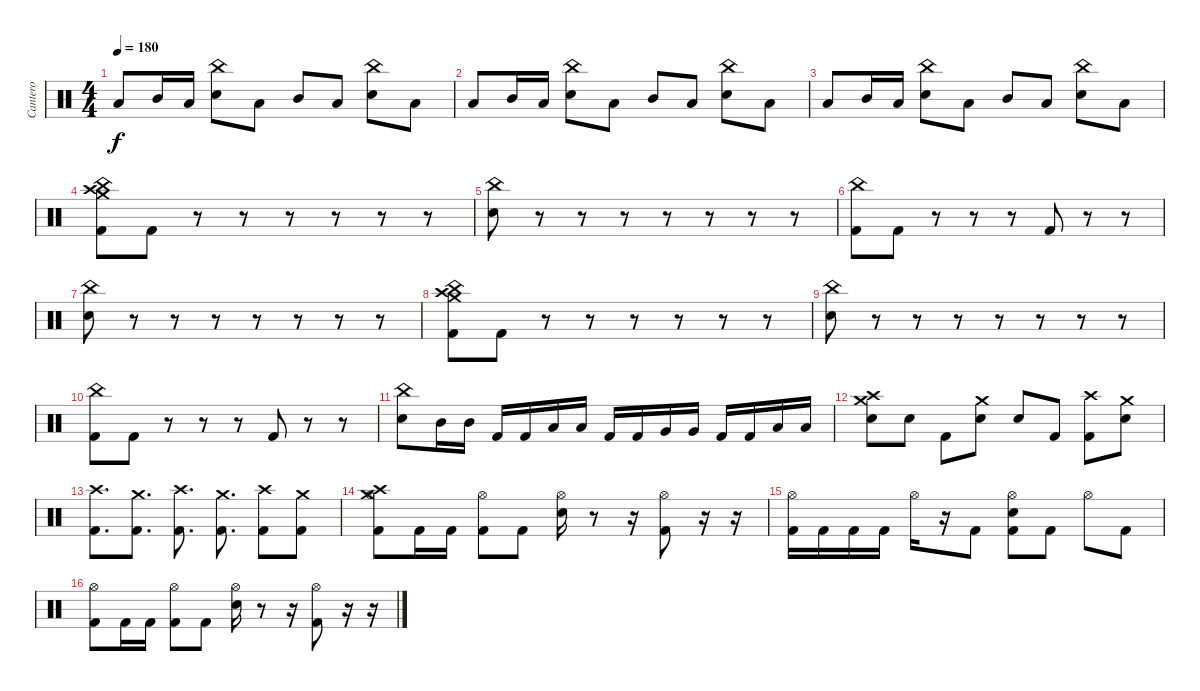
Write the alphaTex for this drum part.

\track ("Cantero" "Cantero") {instrument percussion}
\staff {score}
\articulation defaults
\ts (4 4)
\tempo 180
\clef neutral
\ks c "Low Tom (hit)".8{dy f} "Mid Tom (hit)".16 "Low Tom (hit)".16
("China (hit)" "Electric Snare (hit)").8 "Low Tom (hit)".8 "Mid Tom (hit)".8 "Low Tom (hit)".8 ("China (hit)" "Electric Snare (hit)").8 "Low Tom (hit)".8 |
"Low Tom (hit)".8 "Mid Tom (hit)".16 "Low Tom (hit)".16 ("China (hit)" "Electric Snare (hit)").8 "Low Tom (hit)".8 "Mid Tom (hit)".8 "Low Tom (hit)".8 ("China (hit)" "Electric Snare (hit)").8 "Low Tom (hit)".8 |
"Low Tom (hit)".8 "Mid Tom (hit)".16 "Low Tom (hit)".16 ("China (hit)" "Electric Snare (hit)").8 "Low Tom (hit)".8 "Mid Tom (hit)".8 "Low Tom (hit)".8 ("China (hit)" "Electric Snare (hit)").8 "Low Tom (hit)".8 |
("China (hit)" "Kick (hit) 2" "Crash high (hit)" "Crash medium (hit)").8 "Kick (hit) 2".8 r.8 r.8 r.8 r.8 r.8 r.8 |
("China (hit)" "Electric Snare (hit)").8 r.8 r.8 r.8 r.8 r.8 r.8 r.8 |
("China (hit)" "Kick (hit) 2").8 "Kick (hit) 2".8 r.8 r.8 r.8 "Kick (hit) 2".8 r.8 r.8 |
("China (hit)" "Electric Snare (hit)").8 r.8 r.8 r.8 r.8 r.8 r.8 r.8 |
("China (hit)" "Kick (hit) 2" "Crash high (hit)" "Crash medium (hit)").8 "Kick (hit) 2".8 r.8 r.8 r.8 r.8 r.8 r.8 |
("China (hit)" "Electric Snare (hit)").8 r.8 r.8 r.8 r.8 r.8 r.8 r.8 |
("China (hit)" "Kick (hit) 2").8 "Kick (hit) 2".8 r.8 r.8 r.8 "Kick (hit) 2".8 r.8 r.8 |
("China (hit)" "Electric Snare (hit)").8 "Mid Tom (hit)".16 "Mid Tom (hit)".16 "Kick (hit) 2".16 "Kick (hit) 2".16 "Low Tom (hit)".16 "Low Tom (hit)".16 "Kick (hit) 2".16 "Kick (hit) 2".16 "Very Low Tom (hit)".16 "Very Low Tom (hit)".16 "Kick (hit) 2".16 "Kick (hit) 2".16 "Low Floor Tom (hit)".16 "Low Floor Tom (hit)".16 |
("Electric Snare (hit)" "Crash high (hit)" "Crash medium (hit)").8 "Electric Snare (hit)".8 "Kick (hit) 2".8 ("Electric Snare (hit)" "Crash medium (hit)").8 "Electric Snare (hit)".8 "Kick (hit) 2".8 ("Kick (hit) 2" "Crash high (hit)").8 ("Electric Snare (hit)" "Crash medium (hit)").8 |
("Kick (hit) 2" "Crash high (hit)").8{d} ("Kick (hit) 2" "Crash medium (hit)").8{d} ("Kick (hit) 2" "Crash high (hit)").8{d} ("Kick (hit) 2" "Crash medium (hit)").8{d} ("Kick (hit) 2" "Crash high (hit)").8 ("Kick (hit) 2" "Crash medium (hit)").8 |
("Kick (hit) 2" "Hi-Hat (open)" "Crash medium (hit)" "Crash high (hit)").8 "Kick (hit) 2".16 "Kick (hit) 2".16 ("Kick (hit) 2" "Hi-Hat (open)").8 "Kick (hit) 2".8 ("Electric Snare (hit)" "Hi-Hat (open)").16 r.8 r.16 ("Kick (hit) 2" "Hi-Hat (open)").8 r.16 r.16 |
("Kick (hit) 2" "Hi-Hat (open)").16 "Kick (hit) 2".16 "Kick (hit) 2".16 "Kick (hit) 2".16 "Hi-Hat (open)".16 r.16 "Kick (hit) 2".8 ("Kick (hit) 2" "Electric Snare (hit)" "Hi-Hat (open)").8 "Kick (hit) 2".8 "Hi-Hat (open)".8 "Kick (hit) 2".8 |
("Kick (hit) 2" "Hi-Hat (open)").8 "Kick (hit) 2".16 "Kick (hit) 2".16 ("Kick (hit) 2" "Hi-Hat (open)").8 "Kick (hit) 2".8 ("Electric Snare (hit)" "Hi-Hat (open)").16 r.8 r.16 ("Kick (hit) 2" "Hi-Hat (open)").8 r.16 r.16
